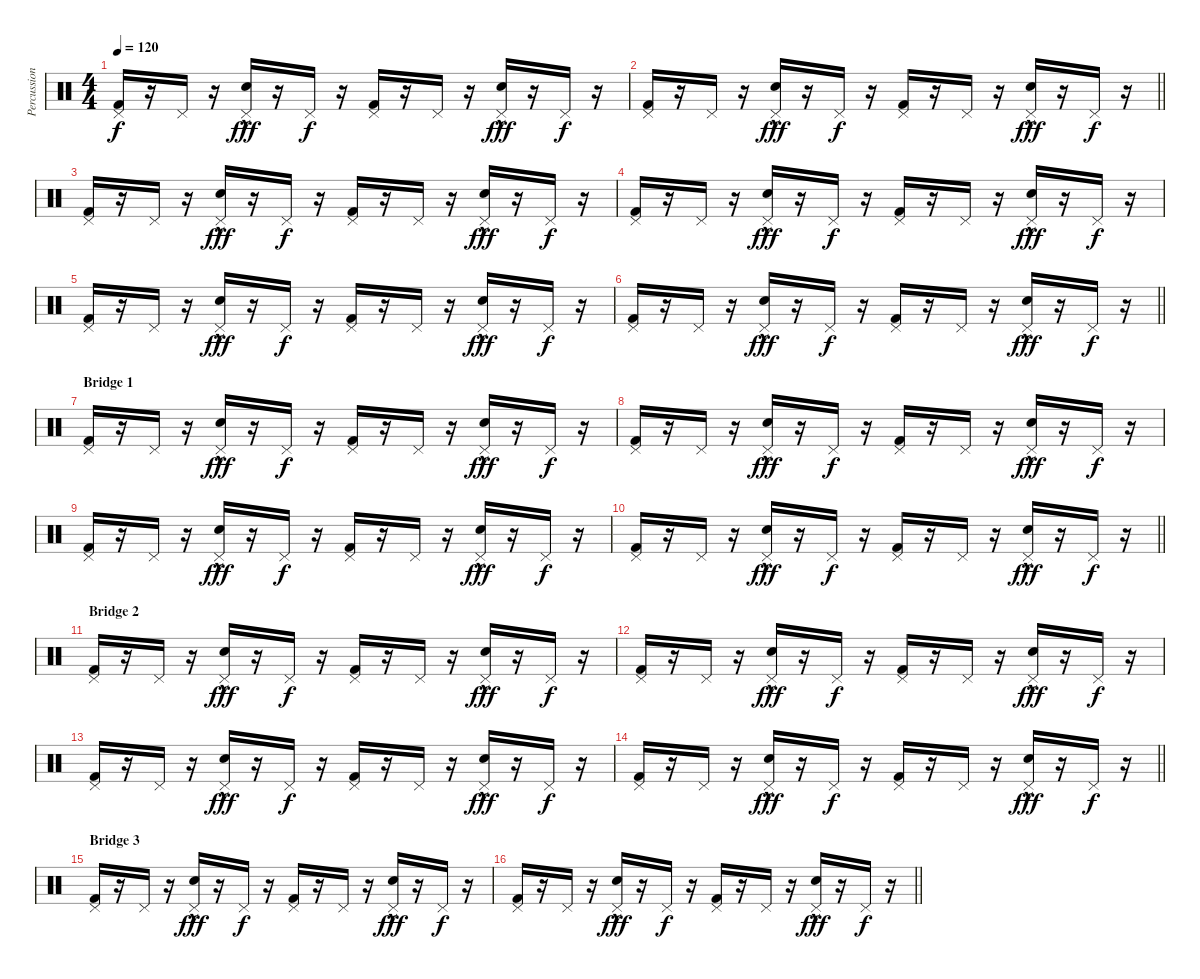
\track ("Percussion" "Percussion") {instrument percussion}
\staff {score}
\articulation defaults
\ts (4 4)
\tempo 120
\clef neutral
\ks c
("Kick (hit) 2" "Pedal Hi-Hat (hit)").16{dy f} r.16 "Pedal Hi-Hat (hit)".16 r.16 ("Snare (hit) 2"{hac} "Pedal Hi-Hat (hit)").16{dy fff} r.16 "Pedal Hi-Hat (hit)".16{dy f} r.16 ("Kick (hit) 2" "Pedal Hi-Hat (hit)").16 r.16 "Pedal Hi-Hat (hit)".16 r.16 ("Snare (hit) 2"{hac} "Pedal Hi-Hat (hit)").16{dy fff} r.16 "Pedal Hi-Hat (hit)".16{dy f} r.16 |
\barLineRight lightlight
("Kick (hit) 2" "Pedal Hi-Hat (hit)").16 r.16 "Pedal Hi-Hat (hit)".16 r.16 ("Snare (hit) 2"{hac} "Pedal Hi-Hat (hit)").16{dy fff} r.16 "Pedal Hi-Hat (hit)".16{dy f} r.16 ("Kick (hit) 2" "Pedal Hi-Hat (hit)").16 r.16 "Pedal Hi-Hat (hit)".16 r.16 ("Snare (hit) 2"{hac} "Pedal Hi-Hat (hit)").16{dy fff} r.16 "Pedal Hi-Hat (hit)".16{dy f} r.16 |
("Kick (hit) 2" "Pedal Hi-Hat (hit)").16 r.16 "Pedal Hi-Hat (hit)".16 r.16 ("Snare (hit) 2"{hac} "Pedal Hi-Hat (hit)").16{dy fff} r.16 "Pedal Hi-Hat (hit)".16{dy f} r.16 ("Kick (hit) 2" "Pedal Hi-Hat (hit)").16 r.16 "Pedal Hi-Hat (hit)".16 r.16 ("Snare (hit) 2"{hac} "Pedal Hi-Hat (hit)").16{dy fff} r.16 "Pedal Hi-Hat (hit)".16{dy f} r.16 |
("Kick (hit) 2" "Pedal Hi-Hat (hit)").16 r.16 "Pedal Hi-Hat (hit)".16 r.16 ("Snare (hit) 2"{hac} "Pedal Hi-Hat (hit)").16{dy fff} r.16 "Pedal Hi-Hat (hit)".16{dy f} r.16 ("Kick (hit) 2" "Pedal Hi-Hat (hit)").16 r.16 "Pedal Hi-Hat (hit)".16 r.16 ("Snare (hit) 2"{hac} "Pedal Hi-Hat (hit)").16{dy fff} r.16 "Pedal Hi-Hat (hit)".16{dy f} r.16 |
("Kick (hit) 2" "Pedal Hi-Hat (hit)").16 r.16 "Pedal Hi-Hat (hit)".16 r.16 ("Snare (hit) 2"{hac} "Pedal Hi-Hat (hit)").16{dy fff} r.16 "Pedal Hi-Hat (hit)".16{dy f} r.16 ("Kick (hit) 2" "Pedal Hi-Hat (hit)").16 r.16 "Pedal Hi-Hat (hit)".16 r.16 ("Snare (hit) 2"{hac} "Pedal Hi-Hat (hit)").16{dy fff} r.16 "Pedal Hi-Hat (hit)".16{dy f} r.16 |
\barLineRight lightlight
("Kick (hit) 2" "Pedal Hi-Hat (hit)").16 r.16 "Pedal Hi-Hat (hit)".16 r.16 ("Snare (hit) 2"{hac} "Pedal Hi-Hat (hit)").16{dy fff} r.16 "Pedal Hi-Hat (hit)".16{dy f} r.16 ("Kick (hit) 2" "Pedal Hi-Hat (hit)").16 r.16 "Pedal Hi-Hat (hit)".16 r.16 ("Snare (hit) 2"{hac} "Pedal Hi-Hat (hit)").16{dy fff} r.16 "Pedal Hi-Hat (hit)".16{dy f} r.16 |
\section ("" "Bridge 1")
("Kick (hit) 2" "Pedal Hi-Hat (hit)").16 r.16 "Pedal Hi-Hat (hit)".16 r.16 ("Snare (hit) 2"{hac} "Pedal Hi-Hat (hit)").16{dy fff} r.16 "Pedal Hi-Hat (hit)".16{dy f} r.16 ("Kick (hit) 2" "Pedal Hi-Hat (hit)").16 r.16 "Pedal Hi-Hat (hit)".16 r.16 ("Snare (hit) 2"{hac} "Pedal Hi-Hat (hit)").16{dy fff} r.16 "Pedal Hi-Hat (hit)".16{dy f} r.16 |
("Kick (hit) 2" "Pedal Hi-Hat (hit)").16 r.16 "Pedal Hi-Hat (hit)".16 r.16 ("Snare (hit) 2"{hac} "Pedal Hi-Hat (hit)").16{dy fff} r.16 "Pedal Hi-Hat (hit)".16{dy f} r.16 ("Kick (hit) 2" "Pedal Hi-Hat (hit)").16 r.16 "Pedal Hi-Hat (hit)".16 r.16 ("Snare (hit) 2"{hac} "Pedal Hi-Hat (hit)").16{dy fff} r.16 "Pedal Hi-Hat (hit)".16{dy f} r.16 |
("Kick (hit) 2" "Pedal Hi-Hat (hit)").16 r.16 "Pedal Hi-Hat (hit)".16 r.16 ("Snare (hit) 2"{hac} "Pedal Hi-Hat (hit)").16{dy fff} r.16 "Pedal Hi-Hat (hit)".16{dy f} r.16 ("Kick (hit) 2" "Pedal Hi-Hat (hit)").16 r.16 "Pedal Hi-Hat (hit)".16 r.16 ("Snare (hit) 2"{hac} "Pedal Hi-Hat (hit)").16{dy fff} r.16 "Pedal Hi-Hat (hit)".16{dy f} r.16 |
\barLineRight lightlight
("Kick (hit) 2" "Pedal Hi-Hat (hit)").16 r.16 "Pedal Hi-Hat (hit)".16 r.16 ("Snare (hit) 2"{hac} "Pedal Hi-Hat (hit)").16{dy fff} r.16 "Pedal Hi-Hat (hit)".16{dy f} r.16 ("Kick (hit) 2" "Pedal Hi-Hat (hit)").16 r.16 "Pedal Hi-Hat (hit)".16 r.16 ("Snare (hit) 2"{hac} "Pedal Hi-Hat (hit)").16{dy fff} r.16 "Pedal Hi-Hat (hit)".16{dy f} r.16 |
\section ("" "Bridge 2")
("Kick (hit) 2" "Pedal Hi-Hat (hit)").16 r.16 "Pedal Hi-Hat (hit)".16 r.16 ("Snare (hit) 2"{hac} "Pedal Hi-Hat (hit)").16{dy fff} r.16 "Pedal Hi-Hat (hit)".16{dy f} r.16 ("Kick (hit) 2" "Pedal Hi-Hat (hit)").16 r.16 "Pedal Hi-Hat (hit)".16 r.16 ("Snare (hit) 2"{hac} "Pedal Hi-Hat (hit)").16{dy fff} r.16 "Pedal Hi-Hat (hit)".16{dy f} r.16 |
("Kick (hit) 2" "Pedal Hi-Hat (hit)").16 r.16 "Pedal Hi-Hat (hit)".16 r.16 ("Snare (hit) 2"{hac} "Pedal Hi-Hat (hit)").16{dy fff} r.16 "Pedal Hi-Hat (hit)".16{dy f} r.16 ("Kick (hit) 2" "Pedal Hi-Hat (hit)").16 r.16 "Pedal Hi-Hat (hit)".16 r.16 ("Snare (hit) 2"{hac} "Pedal Hi-Hat (hit)").16{dy fff} r.16 "Pedal Hi-Hat (hit)".16{dy f} r.16 |
("Kick (hit) 2" "Pedal Hi-Hat (hit)").16 r.16 "Pedal Hi-Hat (hit)".16 r.16 ("Snare (hit) 2"{hac} "Pedal Hi-Hat (hit)").16{dy fff} r.16 "Pedal Hi-Hat (hit)".16{dy f} r.16 ("Kick (hit) 2" "Pedal Hi-Hat (hit)").16 r.16 "Pedal Hi-Hat (hit)".16 r.16 ("Snare (hit) 2"{hac} "Pedal Hi-Hat (hit)").16{dy fff} r.16 "Pedal Hi-Hat (hit)".16{dy f} r.16 |
\barLineRight lightlight
("Kick (hit) 2" "Pedal Hi-Hat (hit)").16 r.16 "Pedal Hi-Hat (hit)".16 r.16 ("Snare (hit) 2"{hac} "Pedal Hi-Hat (hit)").16{dy fff} r.16 "Pedal Hi-Hat (hit)".16{dy f} r.16 ("Kick (hit) 2" "Pedal Hi-Hat (hit)").16 r.16 "Pedal Hi-Hat (hit)".16 r.16 ("Snare (hit) 2"{hac} "Pedal Hi-Hat (hit)").16{dy fff} r.16 "Pedal Hi-Hat (hit)".16{dy f} r.16 |
\section ("" "Bridge 3")
("Kick (hit) 2" "Pedal Hi-Hat (hit)").16 r.16 "Pedal Hi-Hat (hit)".16 r.16 ("Snare (hit) 2"{hac} "Pedal Hi-Hat (hit)").16{dy fff} r.16 "Pedal Hi-Hat (hit)".16{dy f} r.16 ("Kick (hit) 2" "Pedal Hi-Hat (hit)").16 r.16 "Pedal Hi-Hat (hit)".16 r.16 ("Snare (hit) 2"{hac} "Pedal Hi-Hat (hit)").16{dy fff} r.16 "Pedal Hi-Hat (hit)".16{dy f} r.16 |
\barLineRight lightlight
("Kick (hit) 2" "Pedal Hi-Hat (hit)").16 r.16 "Pedal Hi-Hat (hit)".16 r.16 ("Snare (hit) 2"{hac} "Pedal Hi-Hat (hit)").16{dy fff} r.16 "Pedal Hi-Hat (hit)".16{dy f} r.16 ("Kick (hit) 2" "Pedal Hi-Hat (hit)").16 r.16 "Pedal Hi-Hat (hit)".16 r.16 ("Snare (hit) 2"{hac} "Pedal Hi-Hat (hit)").16{dy fff} r.16 "Pedal Hi-Hat (hit)".16{dy f} r.16
